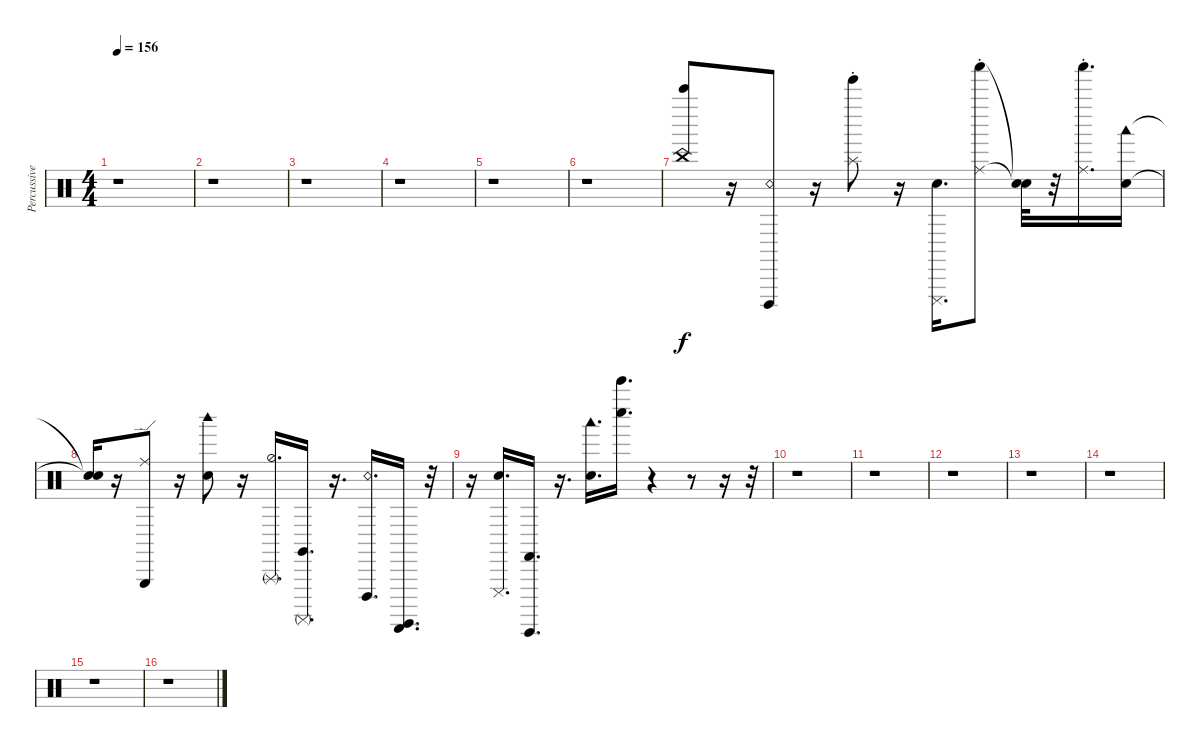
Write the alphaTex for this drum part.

\track ("Percussive Organ" "Percussive") {instrument percussion}
\staff {score}
\articulation defaults
\ts (4 4)
\tempo 156
\clef neutral
\ks c
r.1{dy f} |
r.1 |
r.1 |
r.1 |
r.1 |
r.1 |
("Bell Tree (hit)" "China (choke)").8 r.16 ("Cuica (open)" "Snare (rim shot)").8 r.16 ("Tinkle Bell (hit)" "Splash (choke)").8 r.16 ("Cuica (mute)" "Snare (hit)").16{d} ("Shaker (hit)" "Ride (choke)").8 ("Snare (hit)"{t} "Snare (hit)"{t}).32 r.32 ("Shaker (hit)" "Ride (choke)").16{d} ("Woodblock low (hit)" "Snare (hit)").16 |
("Snare (hit)"{t} "Snare (hit)"{t}).16 r.16 ("Triangle (hit)" "Ride (edge)").8 r.16 ("Woodblock high (hit)" "Snare (hit)").8 r.16 ("Triangle (rnute)" "Hi-Hat (half)").16{d} ("Claves (hit)" "Surdo (mute)").16{d} r.16{d} ("Cuica (open)" "Snare (rim shot)").16{d} ("Guiro (scrap-return)" "Surdo (hit)").16{d} r.32 |
r.16 ("Cuica (mute)" "Snare (hit)").16{d} ("Guiro (hit)" "Castanets (hit)").16{d} r.16{d} ("Woodblock low (hit)" "Snare (hit)").16{d} ("Whistle low (hit)" "Bell Tree (hit)").16{d} r.4 r.8 r.16 r.32 |
r.1 |
r.1 |
r.1 |
r.1 |
r.1 |
r.1 |
r.1
